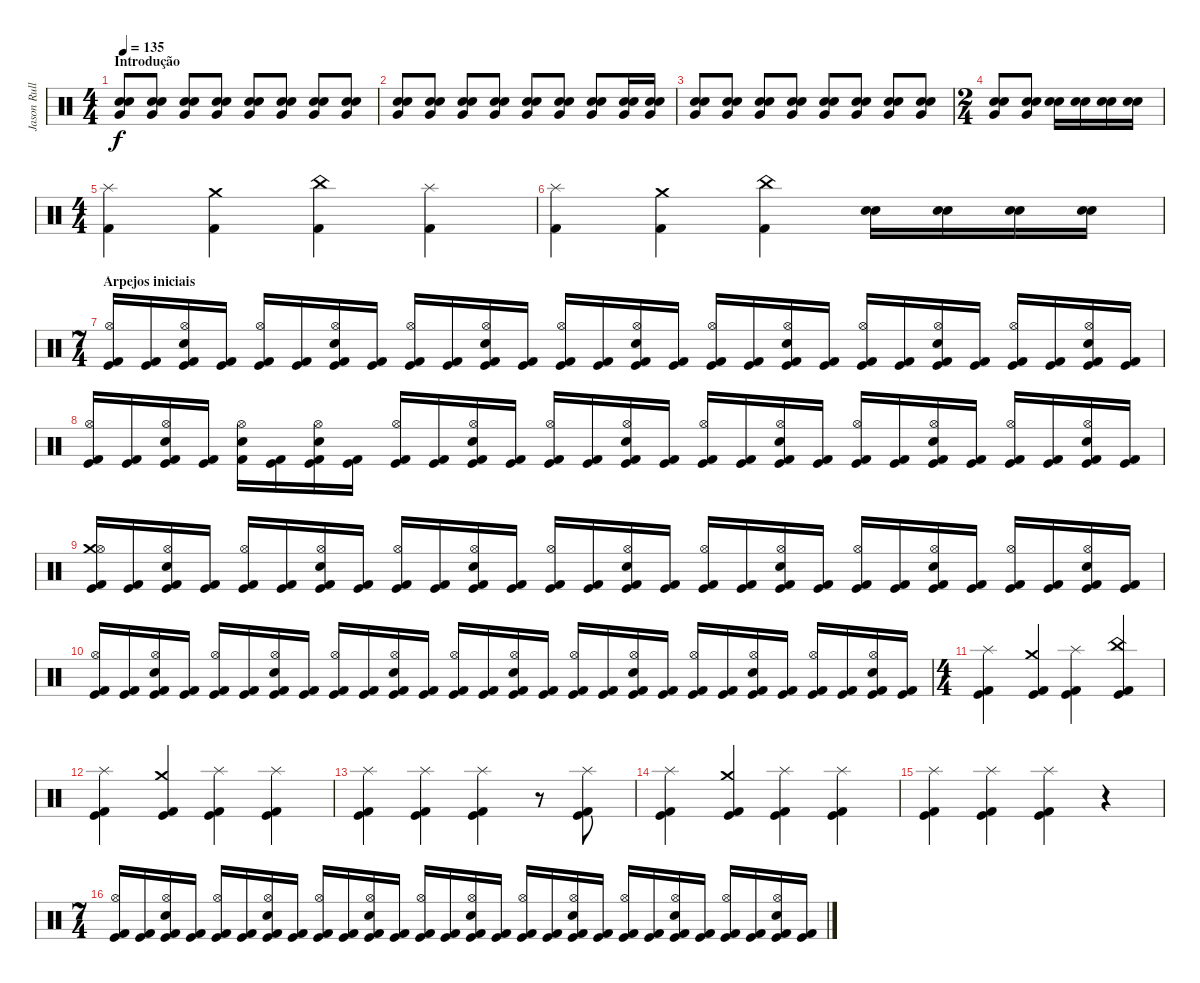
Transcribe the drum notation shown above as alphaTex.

\track ("Jason Rullo" "Jason Rull") {instrument percussion}
\staff {score}
\articulation defaults
\ts (4 4)
\section ("" "Introdução")
\tempo 135
\clef neutral
\ks c
("Very Low Tom (hit)" "Electric Snare (hit)" "Snare (hit) 2").8{dy f} ("Very Low Tom (hit)" "Electric Snare (hit)" "Snare (hit) 2").8 ("Very Low Tom (hit)" "Electric Snare (hit)" "Snare (hit) 2").8 ("Very Low Tom (hit)" "Electric Snare (hit)" "Snare (hit) 2").8 ("Very Low Tom (hit)" "Electric Snare (hit)" "Snare (hit) 2").8 ("Very Low Tom (hit)" "Electric Snare (hit)" "Snare (hit) 2").8 ("Very Low Tom (hit)" "Electric Snare (hit)" "Snare (hit) 2").8 ("Very Low Tom (hit)" "Electric Snare (hit)" "Snare (hit) 2").8 |
("Very Low Tom (hit)" "Electric Snare (hit)" "Snare (hit) 2").8 ("Very Low Tom (hit)" "Electric Snare (hit)" "Snare (hit) 2").8 ("Very Low Tom (hit)" "Electric Snare (hit)" "Snare (hit) 2").8 ("Very Low Tom (hit)" "Electric Snare (hit)" "Snare (hit) 2").8 ("Very Low Tom (hit)" "Electric Snare (hit)" "Snare (hit) 2").8 ("Very Low Tom (hit)" "Electric Snare (hit)" "Snare (hit) 2").8 ("Very Low Tom (hit)" "Electric Snare (hit)" "Snare (hit) 2").8 ("Very Low Tom (hit)" "Electric Snare (hit)" "Snare (hit) 2").16 ("Very Low Tom (hit)" "Electric Snare (hit)" "Snare (hit) 2").16 |
("Very Low Tom (hit)" "Electric Snare (hit)" "Snare (hit) 2").8 ("Very Low Tom (hit)" "Electric Snare (hit)" "Snare (hit) 2").8 ("Very Low Tom (hit)" "Electric Snare (hit)" "Snare (hit) 2").8 ("Very Low Tom (hit)" "Electric Snare (hit)" "Snare (hit) 2").8 ("Very Low Tom (hit)" "Electric Snare (hit)" "Snare (hit) 2").8 ("Very Low Tom (hit)" "Electric Snare (hit)" "Snare (hit) 2").8 ("Very Low Tom (hit)" "Electric Snare (hit)" "Snare (hit) 2").8 ("Very Low Tom (hit)" "Electric Snare (hit)" "Snare (hit) 2").8 |
\ts (2 4)
("Very Low Tom (hit)" "Electric Snare (hit)" "Snare (hit) 2").8 ("Very Low Tom (hit)" "Electric Snare (hit)" "Snare (hit) 2").8 ("Electric Snare (hit)" "Snare (hit) 2").16 ("Electric Snare (hit)" "Snare (hit) 2").16 ("Electric Snare (hit)" "Snare (hit) 2").16 ("Electric Snare (hit)" "Snare (hit) 2").16 |
\ts (4 4)
("Splash (hit)" "Kick (hit) 2").4 ("Crash medium (hit)" "Kick (hit) 2").4 ("China (hit)" "Kick (hit) 2").4 ("Splash (hit)" "Kick (hit) 2").4 |
("Splash (hit)" "Kick (hit) 2").4 ("Crash medium (hit)" "Kick (hit) 2").4 ("China (hit)" "Kick (hit) 2").4 ("Electric Snare (hit)" "Snare (hit) 2").16 ("Electric Snare (hit)" "Snare (hit) 2").16 ("Electric Snare (hit)" "Snare (hit) 2").16 ("Electric Snare (hit)" "Snare (hit) 2").16 |
\ts (7 4)
\section ("" "Arpejos iniciais")
("Hi-Hat (open)" "Kick (hit) 2" "Kick (hit)").16 ("Kick (hit) 2" "Kick (hit)").16 ("Hi-Hat (open)" "Electric Snare (hit)" "Kick (hit) 2" "Kick (hit)").16 ("Kick (hit) 2" "Kick (hit)").16 ("Hi-Hat (open)" "Kick (hit) 2" "Kick (hit)").16 ("Kick (hit) 2" "Kick (hit)").16 ("Hi-Hat (open)" "Electric Snare (hit)" "Kick (hit) 2" "Kick (hit)").16 ("Kick (hit) 2" "Kick (hit)").16 ("Hi-Hat (open)" "Kick (hit) 2" "Kick (hit)").16 ("Kick (hit) 2" "Kick (hit)").16 ("Hi-Hat (open)" "Electric Snare (hit)" "Kick (hit) 2" "Kick (hit)").16 ("Kick (hit) 2" "Kick (hit)").16 ("Hi-Hat (open)" "Kick (hit) 2" "Kick (hit)").16 ("Kick (hit) 2" "Kick (hit)").16 ("Hi-Hat (open)" "Electric Snare (hit)" "Kick (hit) 2" "Kick (hit)").16 ("Kick (hit) 2" "Kick (hit)").16 ("Hi-Hat (open)" "Kick (hit) 2" "Kick (hit)").16 ("Kick (hit) 2" "Kick (hit)").16 ("Hi-Hat (open)" "Electric Snare (hit)" "Kick (hit) 2" "Kick (hit)").16 ("Kick (hit) 2" "Kick (hit)").16 ("Hi-Hat (open)" "Kick (hit) 2" "Kick (hit)").16 ("Kick (hit) 2" "Kick (hit)").16 ("Hi-Hat (open)" "Electric Snare (hit)" "Kick (hit) 2" "Kick (hit)").16 ("Kick (hit) 2" "Kick (hit)").16 ("Hi-Hat (open)" "Kick (hit) 2" "Kick (hit)").16 ("Kick (hit) 2" "Kick (hit)").16 ("Hi-Hat (open)" "Electric Snare (hit)" "Kick (hit) 2" "Kick (hit)").16 ("Kick (hit) 2" "Kick (hit)").16 |
("Hi-Hat (open)" "Kick (hit) 2" "Kick (hit)").16 ("Kick (hit) 2" "Kick (hit)").16 ("Hi-Hat (open)" "Electric Snare (hit)" "Kick (hit) 2" "Kick (hit)").16 ("Kick (hit) 2" "Kick (hit)").16 ("Hi-Hat (open)" "Kick (hit) 2" "Snare (hit)").16 ("Kick (hit) 2" "Kick (hit)").16 ("Hi-Hat (open)" "Electric Snare (hit)" "Kick (hit) 2" "Kick (hit)").16 ("Kick (hit) 2" "Kick (hit)").16 ("Hi-Hat (open)" "Kick (hit) 2" "Kick (hit)").16 ("Kick (hit) 2" "Kick (hit)").16 ("Hi-Hat (open)" "Electric Snare (hit)" "Kick (hit) 2" "Kick (hit)").16 ("Kick (hit) 2" "Kick (hit)").16 ("Hi-Hat (open)" "Kick (hit) 2" "Kick (hit)").16 ("Kick (hit) 2" "Kick (hit)").16 ("Hi-Hat (open)" "Electric Snare (hit)" "Kick (hit) 2" "Kick (hit)").16 ("Kick (hit) 2" "Kick (hit)").16 ("Hi-Hat (open)" "Kick (hit) 2" "Kick (hit)").16 ("Kick (hit) 2" "Kick (hit)").16 ("Hi-Hat (open)" "Electric Snare (hit)" "Kick (hit) 2" "Kick (hit)").16 ("Kick (hit) 2" "Kick (hit)").16 ("Hi-Hat (open)" "Kick (hit) 2" "Kick (hit)").16 ("Kick (hit) 2" "Kick (hit)").16 ("Hi-Hat (open)" "Electric Snare (hit)" "Kick (hit) 2" "Kick (hit)").16 ("Kick (hit) 2" "Kick (hit)").16 ("Hi-Hat (open)" "Kick (hit) 2" "Kick (hit)").16 ("Kick (hit) 2" "Kick (hit)").16 ("Hi-Hat (open)" "Electric Snare (hit)" "Kick (hit) 2" "Kick (hit)").16 ("Kick (hit) 2" "Kick (hit)").16 |
("Crash medium (hit)" "Hi-Hat (open)" "Kick (hit) 2" "Kick (hit)").16 ("Kick (hit) 2" "Kick (hit)").16 ("Hi-Hat (open)" "Electric Snare (hit)" "Kick (hit) 2" "Kick (hit)").16 ("Kick (hit) 2" "Kick (hit)").16 ("Hi-Hat (open)" "Kick (hit) 2" "Kick (hit)").16 ("Kick (hit) 2" "Kick (hit)").16 ("Hi-Hat (open)" "Electric Snare (hit)" "Kick (hit) 2" "Kick (hit)").16 ("Kick (hit) 2" "Kick (hit)").16 ("Hi-Hat (open)" "Kick (hit) 2" "Kick (hit)").16 ("Kick (hit) 2" "Kick (hit)").16 ("Hi-Hat (open)" "Electric Snare (hit)" "Kick (hit) 2" "Kick (hit)").16 ("Kick (hit) 2" "Kick (hit)").16 ("Hi-Hat (open)" "Kick (hit) 2" "Kick (hit)").16 ("Kick (hit) 2" "Kick (hit)").16 ("Hi-Hat (open)" "Electric Snare (hit)" "Kick (hit) 2" "Kick (hit)").16 ("Kick (hit) 2" "Kick (hit)").16 ("Hi-Hat (open)" "Kick (hit) 2" "Kick (hit)").16 ("Kick (hit) 2" "Kick (hit)").16 ("Hi-Hat (open)" "Electric Snare (hit)" "Kick (hit) 2" "Kick (hit)").16 ("Kick (hit) 2" "Kick (hit)").16 ("Hi-Hat (open)" "Kick (hit) 2" "Kick (hit)").16 ("Kick (hit) 2" "Kick (hit)").16 ("Hi-Hat (open)" "Electric Snare (hit)" "Kick (hit) 2" "Kick (hit)").16 ("Kick (hit) 2" "Kick (hit)").16 ("Hi-Hat (open)" "Kick (hit) 2" "Kick (hit)").16 ("Kick (hit) 2" "Kick (hit)").16 ("Hi-Hat (open)" "Electric Snare (hit)" "Kick (hit) 2" "Kick (hit)").16 ("Kick (hit) 2" "Kick (hit)").16 |
("Hi-Hat (open)" "Kick (hit) 2" "Kick (hit)").16 ("Kick (hit) 2" "Kick (hit)").16 ("Hi-Hat (open)" "Electric Snare (hit)" "Kick (hit) 2" "Kick (hit)").16 ("Kick (hit) 2" "Kick (hit)").16 ("Hi-Hat (open)" "Kick (hit) 2" "Kick (hit)").16 ("Kick (hit) 2" "Kick (hit)").16 ("Hi-Hat (open)" "Electric Snare (hit)" "Kick (hit) 2" "Kick (hit)").16 ("Kick (hit) 2" "Kick (hit)").16 ("Hi-Hat (open)" "Kick (hit) 2" "Kick (hit)").16 ("Kick (hit) 2" "Kick (hit)").16 ("Hi-Hat (open)" "Electric Snare (hit)" "Kick (hit) 2" "Kick (hit)").16 ("Kick (hit) 2" "Kick (hit)").16 ("Hi-Hat (open)" "Kick (hit) 2" "Kick (hit)").16 ("Kick (hit) 2" "Kick (hit)").16 ("Hi-Hat (open)" "Electric Snare (hit)" "Kick (hit) 2" "Kick (hit)").16 ("Kick (hit) 2" "Kick (hit)").16 ("Hi-Hat (open)" "Kick (hit) 2" "Kick (hit)").16 ("Kick (hit) 2" "Kick (hit)").16 ("Hi-Hat (open)" "Electric Snare (hit)" "Kick (hit) 2" "Kick (hit)").16 ("Kick (hit) 2" "Kick (hit)").16 ("Hi-Hat (open)" "Kick (hit) 2" "Kick (hit)").16 ("Kick (hit) 2" "Kick (hit)").16 ("Hi-Hat (open)" "Electric Snare (hit)" "Kick (hit) 2" "Kick (hit)").16 ("Kick (hit) 2" "Kick (hit)").16 ("Hi-Hat (open)" "Kick (hit) 2" "Kick (hit)").16 ("Kick (hit) 2" "Kick (hit)").16 ("Hi-Hat (open)" "Electric Snare (hit)" "Kick (hit) 2" "Kick (hit)").16 ("Kick (hit) 2" "Kick (hit)").16 |
\ts (4 4)
("Splash (hit)" "Kick (hit) 2" "Kick (hit)").4 ("Crash medium (hit)" "Kick (hit) 2" "Kick (hit)").4 ("Splash (hit)" "Kick (hit) 2" "Kick (hit)").4 ("China (hit)" "Kick (hit) 2" "Kick (hit)").4 |
("Splash (hit)" "Kick (hit) 2" "Kick (hit)").4 ("Crash medium (hit)" "Kick (hit) 2" "Kick (hit)").4 ("Splash (hit)" "Kick (hit) 2" "Kick (hit)").4 ("Splash (hit)" "Kick (hit) 2" "Kick (hit)").4 |
("Splash (hit)" "Kick (hit) 2" "Kick (hit)").4 ("Splash (hit)" "Kick (hit) 2" "Kick (hit)").4 ("Splash (hit)" "Kick (hit) 2" "Kick (hit)").4 r.8 ("Splash (hit)" "Kick (hit) 2" "Kick (hit)").8 |
("Splash (hit)" "Kick (hit) 2" "Kick (hit)").4 ("Crash medium (hit)" "Kick (hit) 2" "Kick (hit)").4 ("Splash (hit)" "Kick (hit) 2" "Kick (hit)").4 ("Splash (hit)" "Kick (hit) 2" "Kick (hit)").4 |
("Splash (hit)" "Kick (hit) 2" "Kick (hit)").4 ("Splash (hit)" "Kick (hit) 2" "Kick (hit)").4 ("Splash (hit)" "Kick (hit) 2" "Kick (hit)").4 r.4 |
\ts (7 4)
("Hi-Hat (open)" "Kick (hit) 2" "Kick (hit)").16 ("Kick (hit) 2" "Kick (hit)").16 ("Hi-Hat (open)" "Electric Snare (hit)" "Kick (hit) 2" "Kick (hit)").16 ("Kick (hit) 2" "Kick (hit)").16 ("Hi-Hat (open)" "Kick (hit) 2" "Kick (hit)").16 ("Kick (hit) 2" "Kick (hit)").16 ("Hi-Hat (open)" "Electric Snare (hit)" "Kick (hit) 2" "Kick (hit)").16 ("Kick (hit) 2" "Kick (hit)").16 ("Hi-Hat (open)" "Kick (hit) 2" "Kick (hit)").16 ("Kick (hit) 2" "Kick (hit)").16 ("Hi-Hat (open)" "Electric Snare (hit)" "Kick (hit) 2" "Kick (hit)").16 ("Kick (hit) 2" "Kick (hit)").16 ("Hi-Hat (open)" "Kick (hit) 2" "Kick (hit)").16 ("Kick (hit) 2" "Kick (hit)").16 ("Hi-Hat (open)" "Electric Snare (hit)" "Kick (hit) 2" "Kick (hit)").16 ("Kick (hit) 2" "Kick (hit)").16 ("Hi-Hat (open)" "Kick (hit) 2" "Kick (hit)").16 ("Kick (hit) 2" "Kick (hit)").16 ("Hi-Hat (open)" "Electric Snare (hit)" "Kick (hit) 2" "Kick (hit)").16 ("Kick (hit) 2" "Kick (hit)").16 ("Hi-Hat (open)" "Kick (hit) 2" "Kick (hit)").16 ("Kick (hit) 2" "Kick (hit)").16 ("Hi-Hat (open)" "Electric Snare (hit)" "Kick (hit) 2" "Kick (hit)").16 ("Kick (hit) 2" "Kick (hit)").16 ("Hi-Hat (open)" "Kick (hit) 2" "Kick (hit)").16 ("Kick (hit) 2" "Kick (hit)").16 ("Hi-Hat (open)" "Electric Snare (hit)" "Kick (hit) 2" "Kick (hit)").16 ("Kick (hit) 2" "Kick (hit)").16
